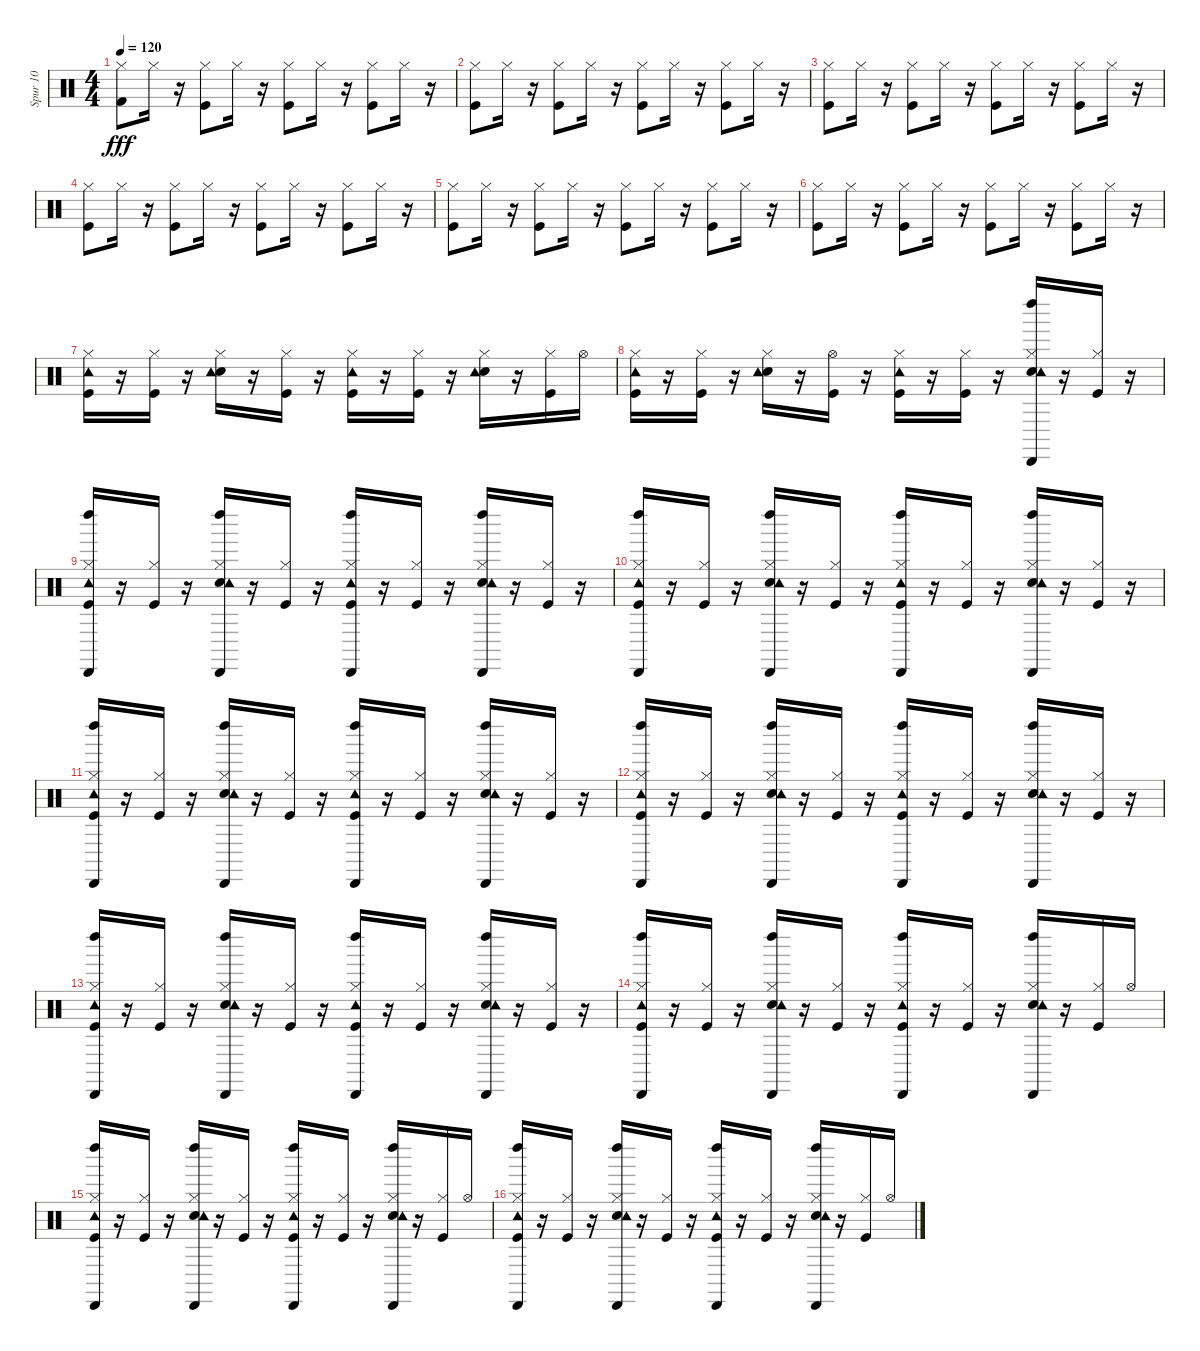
\track ("Spur 10" "Spur 10") {instrument percussion}
\staff {score}
\articulation defaults
\ts (4 4)
\tempo 120
\clef neutral
\ks c
("Hi-Hat (closed)" "Kick (hit) 2").8{dy fff} "Hi-Hat (closed)".16 r.16 ("Hi-Hat (closed)" "Kick (hit)").8 "Hi-Hat (closed)".16 r.16 ("Hi-Hat (closed)" "Kick (hit)").8 "Hi-Hat (closed)".16 r.16 ("Hi-Hat (closed)" "Kick (hit)").8 "Hi-Hat (closed)".16 r.16 |
("Hi-Hat (closed)" "Kick (hit)").8 "Hi-Hat (closed)".16 r.16 ("Hi-Hat (closed)" "Kick (hit)").8 "Hi-Hat (closed)".16 r.16 ("Hi-Hat (closed)" "Kick (hit)").8 "Hi-Hat (closed)".16 r.16 ("Hi-Hat (closed)" "Kick (hit)").8 "Hi-Hat (closed)".16 r.16 |
("Hi-Hat (closed)" "Kick (hit)").8 "Hi-Hat (closed)".16 r.16 ("Hi-Hat (closed)" "Kick (hit)").8 "Hi-Hat (closed)".16 r.16 ("Hi-Hat (closed)" "Kick (hit)").8 "Hi-Hat (closed)".16 r.16 ("Hi-Hat (closed)" "Kick (hit)").8 "Hi-Hat (closed)".16 r.16 |
("Hi-Hat (closed)" "Kick (hit)").8 "Hi-Hat (closed)".16 r.16 ("Hi-Hat (closed)" "Kick (hit)").8 "Hi-Hat (closed)".16 r.16 ("Hi-Hat (closed)" "Kick (hit)").8 "Hi-Hat (closed)".16 r.16 ("Hi-Hat (closed)" "Kick (hit)").8 "Hi-Hat (closed)".16 r.16 |
("Hi-Hat (closed)" "Kick (hit)").8 "Hi-Hat (closed)".16 r.16 ("Hi-Hat (closed)" "Kick (hit)").8 "Hi-Hat (closed)".16 r.16 ("Hi-Hat (closed)" "Kick (hit)").8 "Hi-Hat (closed)".16 r.16 ("Hi-Hat (closed)" "Kick (hit)").8 "Hi-Hat (closed)".16 r.16 |
("Hi-Hat (closed)" "Kick (hit)").8 "Hi-Hat (closed)".16 r.16 ("Hi-Hat (closed)" "Kick (hit)").8 "Hi-Hat (closed)".16 r.16 ("Hi-Hat (closed)" "Kick (hit)").8 "Hi-Hat (closed)".16 r.16 ("Hi-Hat (closed)" "Kick (hit)").8 "Hi-Hat (closed)".16 r.16 |
("Kick (hit)" "Hi-Hat (closed)" "Tambourine (hit)").16 r.16 ("Kick (hit)" "Hi-Hat (closed)").16 r.16 ("Snare (hit) 2" "Hi-Hat (closed)" "Tambourine (hit)").16 r.16 ("Kick (hit)" "Hi-Hat (closed)").16 r.16 ("Kick (hit)" "Hi-Hat (closed)" "Tambourine (hit)").16 r.16 ("Kick (hit)" "Hi-Hat (closed)").16 r.16 ("Snare (hit) 2" "Hi-Hat (closed)" "Tambourine (hit)").16 r.16 ("Kick (hit)" "Hi-Hat (closed)").16 "Hi-Hat (open)".16 |
("Kick (hit)" "Hi-Hat (closed)" "Tambourine (hit)").16 r.16 ("Kick (hit)" "Hi-Hat (closed)").16 r.16 ("Snare (hit) 2" "Hi-Hat (closed)" "Tambourine (hit)").16 r.16 ("Kick (hit)" "Hi-Hat (open)").16 r.16 ("Kick (hit)" "Hi-Hat (closed)" "Tambourine (hit)").16 r.16 ("Kick (hit)" "Hi-Hat (closed)").16 r.16 ("Snare (hit) 2" "Hi-Hat (closed)" "Tambourine (hit)" "Left Maraca (hit)" "Cabasa (hit)").16 r.16 ("Kick (hit)" "Hi-Hat (closed)").16 r.16 |
("Kick (hit)" "Hi-Hat (closed)" "Tambourine (hit)" "Left Maraca (hit)" "Cabasa (hit)").16 r.16 ("Kick (hit)" "Hi-Hat (closed)").16 r.16 ("Snare (hit) 2" "Hi-Hat (closed)" "Tambourine (hit)" "Left Maraca (hit)" "Cabasa (hit)").16 r.16 ("Kick (hit)" "Hi-Hat (closed)").16 r.16 ("Kick (hit)" "Hi-Hat (closed)" "Tambourine (hit)" "Left Maraca (hit)" "Cabasa (hit)").16 r.16 ("Kick (hit)" "Hi-Hat (closed)").16 r.16 ("Snare (hit) 2" "Hi-Hat (closed)" "Tambourine (hit)" "Left Maraca (hit)" "Cabasa (hit)").16 r.16 ("Kick (hit)" "Hi-Hat (closed)").16 r.16 |
("Kick (hit)" "Hi-Hat (closed)" "Tambourine (hit)" "Left Maraca (hit)" "Cabasa (hit)").16 r.16 ("Kick (hit)" "Hi-Hat (closed)").16 r.16 ("Snare (hit) 2" "Hi-Hat (closed)" "Tambourine (hit)" "Left Maraca (hit)" "Cabasa (hit)").16 r.16 ("Kick (hit)" "Hi-Hat (closed)").16 r.16 ("Kick (hit)" "Hi-Hat (closed)" "Tambourine (hit)" "Left Maraca (hit)" "Cabasa (hit)").16 r.16 ("Kick (hit)" "Hi-Hat (closed)").16 r.16 ("Snare (hit) 2" "Hi-Hat (closed)" "Tambourine (hit)" "Left Maraca (hit)" "Cabasa (hit)").16 r.16 ("Kick (hit)" "Hi-Hat (closed)").16 r.16 |
("Kick (hit)" "Hi-Hat (closed)" "Tambourine (hit)" "Left Maraca (hit)" "Cabasa (hit)").16 r.16 ("Kick (hit)" "Hi-Hat (closed)").16 r.16 ("Snare (hit) 2" "Hi-Hat (closed)" "Tambourine (hit)" "Left Maraca (hit)" "Cabasa (hit)").16 r.16 ("Kick (hit)" "Hi-Hat (closed)").16 r.16 ("Kick (hit)" "Hi-Hat (closed)" "Tambourine (hit)" "Left Maraca (hit)" "Cabasa (hit)").16 r.16 ("Kick (hit)" "Hi-Hat (closed)").16 r.16 ("Snare (hit) 2" "Hi-Hat (closed)" "Tambourine (hit)" "Left Maraca (hit)" "Cabasa (hit)").16 r.16 ("Kick (hit)" "Hi-Hat (closed)").16 r.16 |
("Kick (hit)" "Hi-Hat (closed)" "Tambourine (hit)" "Left Maraca (hit)" "Cabasa (hit)").16 r.16 ("Kick (hit)" "Hi-Hat (closed)").16 r.16 ("Snare (hit) 2" "Hi-Hat (closed)" "Tambourine (hit)" "Left Maraca (hit)" "Cabasa (hit)").16 r.16 ("Kick (hit)" "Hi-Hat (closed)").16 r.16 ("Kick (hit)" "Hi-Hat (closed)" "Tambourine (hit)" "Left Maraca (hit)" "Cabasa (hit)").16 r.16 ("Kick (hit)" "Hi-Hat (closed)").16 r.16 ("Snare (hit) 2" "Hi-Hat (closed)" "Tambourine (hit)" "Left Maraca (hit)" "Cabasa (hit)").16 r.16 ("Kick (hit)" "Hi-Hat (closed)").16 r.16 |
("Kick (hit)" "Hi-Hat (closed)" "Tambourine (hit)" "Left Maraca (hit)" "Cabasa (hit)").16 r.16 ("Kick (hit)" "Hi-Hat (closed)").16 r.16 ("Snare (hit) 2" "Hi-Hat (closed)" "Tambourine (hit)" "Left Maraca (hit)" "Cabasa (hit)").16 r.16 ("Kick (hit)" "Hi-Hat (closed)").16 r.16 ("Kick (hit)" "Hi-Hat (closed)" "Tambourine (hit)" "Left Maraca (hit)" "Cabasa (hit)").16 r.16 ("Kick (hit)" "Hi-Hat (closed)").16 r.16 ("Snare (hit) 2" "Hi-Hat (closed)" "Tambourine (hit)" "Left Maraca (hit)" "Cabasa (hit)").16 r.16 ("Kick (hit)" "Hi-Hat (closed)").16 r.16 |
("Kick (hit)" "Hi-Hat (closed)" "Tambourine (hit)" "Left Maraca (hit)" "Cabasa (hit)").16 r.16 ("Kick (hit)" "Hi-Hat (closed)").16 r.16 ("Snare (hit) 2" "Hi-Hat (closed)" "Tambourine (hit)" "Left Maraca (hit)" "Cabasa (hit)").16 r.16 ("Kick (hit)" "Hi-Hat (closed)").16 r.16 ("Kick (hit)" "Hi-Hat (closed)" "Tambourine (hit)" "Left Maraca (hit)" "Cabasa (hit)").16 r.16 ("Kick (hit)" "Hi-Hat (closed)").16 r.16 ("Snare (hit) 2" "Hi-Hat (closed)" "Tambourine (hit)" "Left Maraca (hit)" "Cabasa (hit)").16 r.16 ("Kick (hit)" "Hi-Hat (closed)").16 "Hi-Hat (open)".16 |
("Kick (hit)" "Hi-Hat (closed)" "Tambourine (hit)" "Left Maraca (hit)" "Cabasa (hit)").16 r.16 ("Kick (hit)" "Hi-Hat (closed)").16 r.16 ("Snare (hit) 2" "Hi-Hat (closed)" "Tambourine (hit)" "Left Maraca (hit)" "Cabasa (hit)").16 r.16 ("Kick (hit)" "Hi-Hat (closed)").16 r.16 ("Kick (hit)" "Hi-Hat (closed)" "Tambourine (hit)" "Left Maraca (hit)" "Cabasa (hit)").16 r.16 ("Kick (hit)" "Hi-Hat (closed)").16 r.16 ("Snare (hit) 2" "Hi-Hat (closed)" "Tambourine (hit)" "Left Maraca (hit)" "Cabasa (hit)").16 r.16 ("Kick (hit)" "Hi-Hat (closed)").16 "Hi-Hat (open)".16 |
("Kick (hit)" "Hi-Hat (closed)" "Tambourine (hit)" "Left Maraca (hit)" "Cabasa (hit)").16 r.16 ("Kick (hit)" "Hi-Hat (closed)").16 r.16 ("Snare (hit) 2" "Hi-Hat (closed)" "Tambourine (hit)" "Left Maraca (hit)" "Cabasa (hit)").16 r.16 ("Kick (hit)" "Hi-Hat (closed)").16 r.16 ("Kick (hit)" "Hi-Hat (closed)" "Tambourine (hit)" "Left Maraca (hit)" "Cabasa (hit)").16 r.16 ("Kick (hit)" "Hi-Hat (closed)").16 r.16 ("Snare (hit) 2" "Hi-Hat (closed)" "Tambourine (hit)" "Left Maraca (hit)" "Cabasa (hit)").16 r.16 ("Kick (hit)" "Hi-Hat (closed)").16 "Hi-Hat (open)".16
